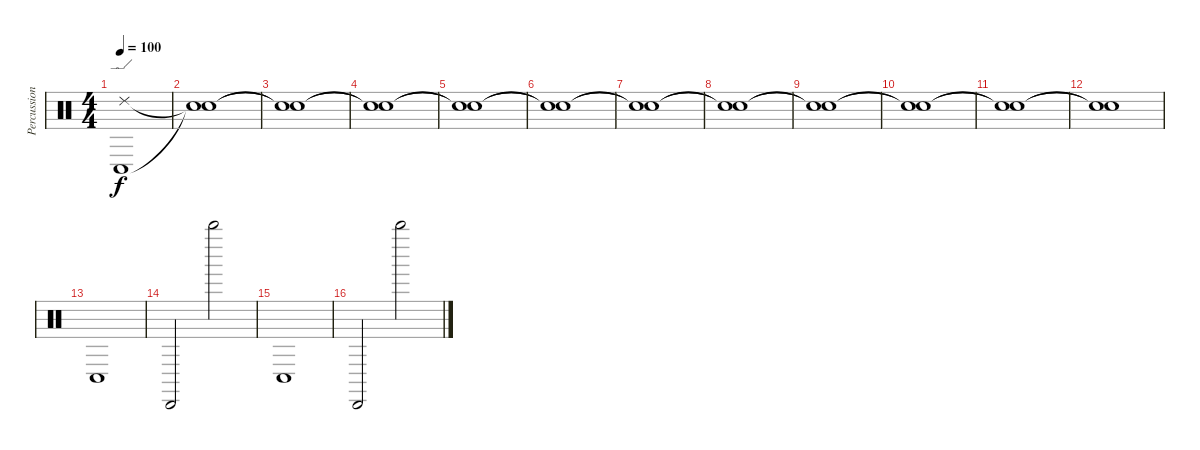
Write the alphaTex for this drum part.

\track ("Percussion Organ" "Percussion") {instrument percussion}
\staff {score}
\articulation defaults
\ts (4 4)
\tempo 100
\clef neutral
\ks c
("Ride (edge) 2" "Conga low (hit)").1{dy f} |
("Snare (hit)"{t} "Snare (hit)"{t}).1 |
("Snare (hit)"{t} "Snare (hit)"{t}).1 |
("Snare (hit)"{t} "Snare (hit)"{t}).1 |
("Snare (hit)"{t} "Snare (hit)"{t}).1 |
("Snare (hit)"{t} "Snare (hit)"{t}).1 |
("Snare (hit)"{t} "Snare (hit)"{t}).1 |
("Snare (hit)"{t} "Snare (hit)"{t}).1 |
("Snare (hit)"{t} "Snare (hit)"{t}).1 |
("Snare (hit)"{t} "Snare (hit)"{t}).1 |
("Snare (hit)"{t} "Snare (hit)"{t}).1 |
("Snare (hit)"{t} "Snare (hit)"{t}).1 |
"Conga low (hit)".1 |
"Cabasa (hit)".2 "Whistle high (hit)".2 |
"Conga low (hit)".1 |
"Cabasa (hit)".2 "Whistle high (hit)".2
